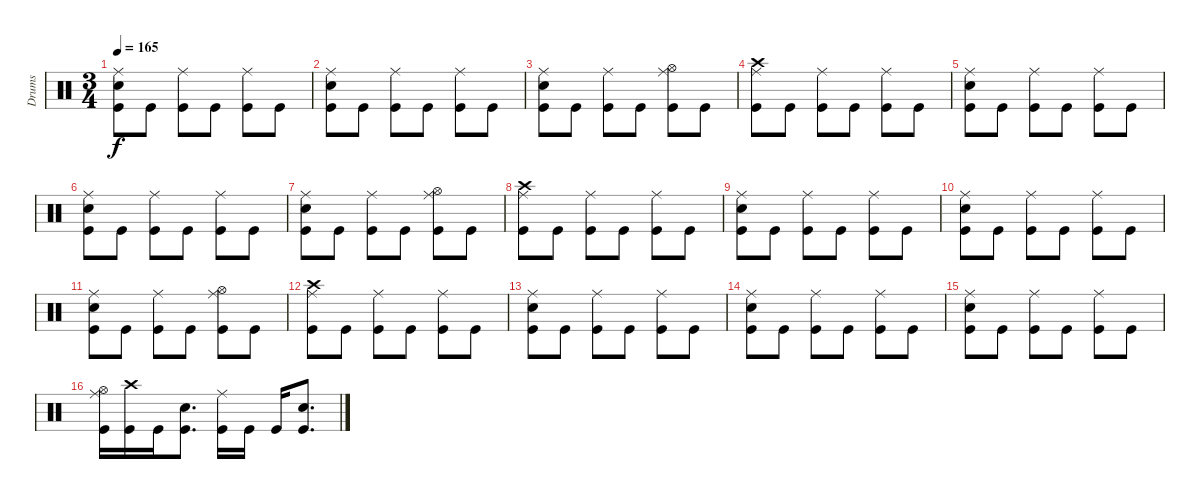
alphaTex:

\track ("Drums" "Drums") {instrument percussion}
\staff {score}
\articulation defaults
\ts (3 4)
\tempo 165
\clef neutral
\ks c
("Ride (middle)" "Snare (hit) 2" "Kick (hit)").8{dy f} "Kick (hit)".8 ("Ride (middle)" "Kick (hit)").8 "Kick (hit)".8 ("Ride (middle)" "Kick (hit)").8 "Kick (hit)".8 |
("Ride (middle)" "Snare (hit) 2" "Kick (hit)").8 "Kick (hit)".8 ("Ride (middle)" "Kick (hit)").8 "Kick (hit)".8 ("Ride (middle)" "Kick (hit)").8 "Kick (hit)".8 |
("Ride (middle)" "Snare (hit) 2" "Kick (hit)").8 "Kick (hit)".8 ("Ride (middle)" "Kick (hit)").8 "Kick (hit)".8 ("Ride (middle)" "Hi-Hat (open)" "Kick (hit)").8 "Kick (hit)".8 |
("Ride (middle)" "Crash high (hit)" "Kick (hit)").8 "Kick (hit)".8 ("Ride (middle)" "Kick (hit)").8 "Kick (hit)".8 ("Ride (middle)" "Kick (hit)").8 "Kick (hit)".8 |
("Ride (middle)" "Snare (hit) 2" "Kick (hit)").8 "Kick (hit)".8 ("Ride (middle)" "Kick (hit)").8 "Kick (hit)".8 ("Ride (middle)" "Kick (hit)").8 "Kick (hit)".8 |
("Ride (middle)" "Snare (hit) 2" "Kick (hit)").8 "Kick (hit)".8 ("Ride (middle)" "Kick (hit)").8 "Kick (hit)".8 ("Ride (middle)" "Kick (hit)").8 "Kick (hit)".8 |
("Ride (middle)" "Snare (hit) 2" "Kick (hit)").8 "Kick (hit)".8 ("Ride (middle)" "Kick (hit)").8 "Kick (hit)".8 ("Ride (middle)" "Hi-Hat (open)" "Kick (hit)").8 "Kick (hit)".8 |
("Ride (middle)" "Crash high (hit)" "Kick (hit)").8 "Kick (hit)".8 ("Ride (middle)" "Kick (hit)").8 "Kick (hit)".8 ("Ride (middle)" "Kick (hit)").8 "Kick (hit)".8 |
("Ride (middle)" "Snare (hit) 2" "Kick (hit)").8 "Kick (hit)".8 ("Ride (middle)" "Kick (hit)").8 "Kick (hit)".8 ("Ride (middle)" "Kick (hit)").8 "Kick (hit)".8 |
("Ride (middle)" "Snare (hit) 2" "Kick (hit)").8 "Kick (hit)".8 ("Ride (middle)" "Kick (hit)").8 "Kick (hit)".8 ("Ride (middle)" "Kick (hit)").8 "Kick (hit)".8 |
("Ride (middle)" "Snare (hit) 2" "Kick (hit)").8 "Kick (hit)".8 ("Ride (middle)" "Kick (hit)").8 "Kick (hit)".8 ("Ride (middle)" "Hi-Hat (open)" "Kick (hit)").8 "Kick (hit)".8 |
("Ride (middle)" "Crash high (hit)" "Kick (hit)").8 "Kick (hit)".8 ("Ride (middle)" "Kick (hit)").8 "Kick (hit)".8 ("Ride (middle)" "Kick (hit)").8 "Kick (hit)".8 |
("Ride (middle)" "Snare (hit) 2" "Kick (hit)").8 "Kick (hit)".8 ("Ride (middle)" "Kick (hit)").8 "Kick (hit)".8 ("Ride (middle)" "Kick (hit)").8 "Kick (hit)".8 |
("Ride (middle)" "Snare (hit) 2" "Kick (hit)").8 "Kick (hit)".8 ("Ride (middle)" "Kick (hit)").8 "Kick (hit)".8 ("Ride (middle)" "Kick (hit)").8 "Kick (hit)".8 |
("Ride (middle)" "Snare (hit) 2" "Kick (hit)").8 "Kick (hit)".8 ("Ride (middle)" "Kick (hit)").8 "Kick (hit)".8 ("Ride (middle)" "Kick (hit)").8 "Kick (hit)".8 |
("Ride (middle)" "Hi-Hat (open)" "Kick (hit)").16 ("Crash high (hit)" "Kick (hit)").16 "Kick (hit)".16 ("Snare (hit) 2" "Kick (hit)").8{d} ("Ride (middle)" "Kick (hit)").16 "Kick (hit)".16 "Kick (hit)".16 ("Snare (hit) 2" "Kick (hit)").8{d}
